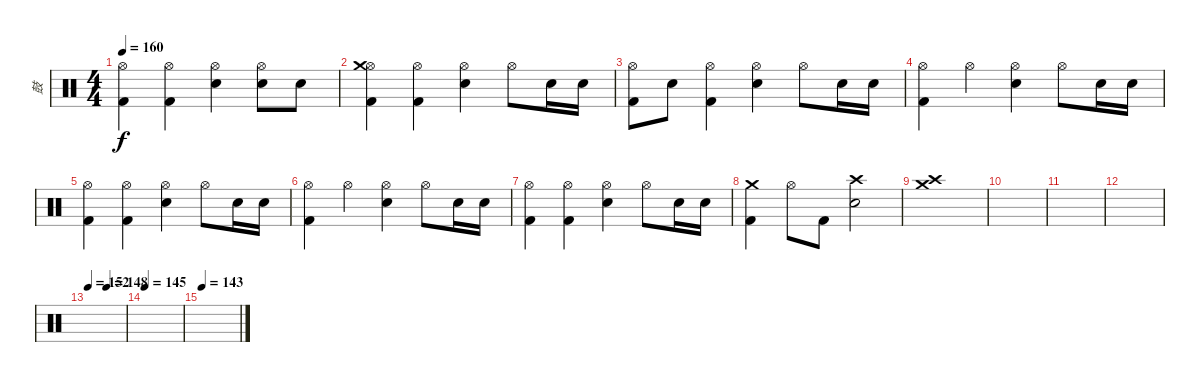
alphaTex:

\track ("鼓" "鼓") {instrument percussion}
\staff {score}
\articulation defaults
\ts (4 4)
\tempo 160
\clef neutral
\ks c
("Hi-Hat (open)" "Kick (hit) 2").4{dy f} ("Hi-Hat (open)" "Kick (hit) 2").4 ("Hi-Hat (open)" "Electric Snare (hit)").4 ("Hi-Hat (open)" "Electric Snare (hit)").8 "Electric Snare (hit)".8 |
("Hi-Hat (open)" "Crash medium (hit)" "Kick (hit) 2").4 ("Hi-Hat (open)" "Kick (hit) 2").4 ("Hi-Hat (open)" "Electric Snare (hit)").4 "Hi-Hat (open)".8 "Electric Snare (hit)".16 "Electric Snare (hit)".16 |
("Hi-Hat (open)" "Kick (hit) 2").8 "Electric Snare (hit)".8 ("Hi-Hat (open)" "Kick (hit) 2").4 ("Hi-Hat (open)" "Electric Snare (hit)").4 "Hi-Hat (open)".8 "Electric Snare (hit)".16 "Electric Snare (hit)".16 |
("Hi-Hat (open)" "Kick (hit) 2").4 "Hi-Hat (open)".4 ("Hi-Hat (open)" "Electric Snare (hit)").4 "Hi-Hat (open)".8 "Electric Snare (hit)".16 "Electric Snare (hit)".16 |
("Hi-Hat (open)" "Kick (hit) 2").4 ("Hi-Hat (open)" "Kick (hit) 2").4 ("Hi-Hat (open)" "Electric Snare (hit)").4 "Hi-Hat (open)".8 "Electric Snare (hit)".16 "Electric Snare (hit)".16 |
("Hi-Hat (open)" "Kick (hit) 2").4 "Hi-Hat (open)".4 ("Hi-Hat (open)" "Electric Snare (hit)").4 "Hi-Hat (open)".8 "Electric Snare (hit)".16 "Electric Snare (hit)".16 |
("Hi-Hat (open)" "Kick (hit) 2").4 ("Hi-Hat (open)" "Kick (hit) 2").4 ("Hi-Hat (open)" "Electric Snare (hit)").4 "Hi-Hat (open)".8 "Electric Snare (hit)".16 "Electric Snare (hit)".16 |
("Crash medium (hit)" "Kick (hit) 2").4 "Hi-Hat (open)".8 "Kick (hit) 2".8 ("Crash high (hit)" "Electric Snare (hit)").2 |
("Crash medium (hit)" "Crash high (hit)").1 |
|
|
|
\tempo 152
\tempo (148 0.5)
|
\tempo 145
|
\tempo 143
